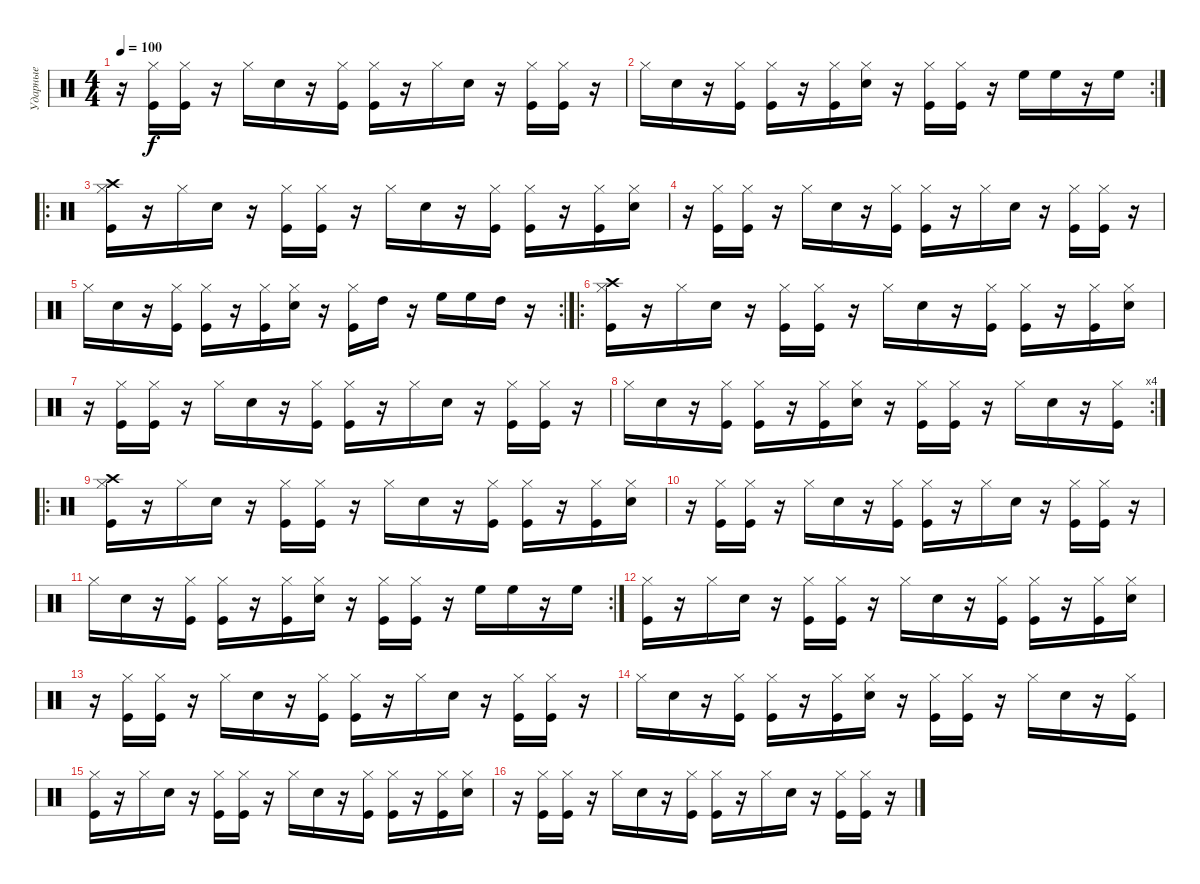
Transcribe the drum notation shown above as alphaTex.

\track ("Ударные" "Ударные") {instrument percussion}
\staff {score}
\articulation defaults
\ts (4 4)
\tempo 100
\clef neutral
\ks c
r.16{dy f} ("Kick (hit)" "Hi-Hat (closed)").16 ("Kick (hit)" "Hi-Hat (closed)").16 r.16 "Hi-Hat (closed)".16 "Electric Snare (hit)".16 r.16 ("Kick (hit)" "Hi-Hat (closed)").16 ("Kick (hit)" "Hi-Hat (closed)").16 r.16 "Hi-Hat (closed)".16 "Electric Snare (hit)".16 r.16 ("Kick (hit)" "Hi-Hat (closed)").16 ("Kick (hit)" "Hi-Hat (closed)").16 r.16 |
\rc 2 "Hi-Hat (closed)".16 "Electric Snare (hit)".16
r.16 ("Kick (hit)" "Hi-Hat (closed)").16 ("Kick (hit)" "Hi-Hat (closed)").16 r.16 ("Kick (hit)" "Hi-Hat (closed)").16 ("Electric Snare (hit)" "Hi-Hat (closed)").16 r.16 ("Kick (hit)" "Hi-Hat (closed)").16 ("Kick (hit)" "Hi-Hat (closed)").16 r.16 "High Floor Tom (hit)".16 "High Floor Tom (hit)".16 r.16 "High Floor Tom (hit)".16 |
\ro
("Hi-Hat (closed)" "Kick (hit)" "Crash high (hit)").16 r.16 "Hi-Hat (closed)".16 "Electric Snare (hit)".16 r.16 ("Kick (hit)" "Hi-Hat (closed)").16 ("Kick (hit)" "Hi-Hat (closed)").16 r.16 "Hi-Hat (closed)".16 "Electric Snare (hit)".16 r.16 ("Kick (hit)" "Hi-Hat (closed)").16 ("Kick (hit)" "Hi-Hat (closed)").16 r.16 ("Kick (hit)" "Hi-Hat (closed)").16 ("Electric Snare (hit)" "Hi-Hat (closed)").16 |
r.16 ("Kick (hit)" "Hi-Hat (closed)").16 ("Kick (hit)" "Hi-Hat (closed)").16 r.16 "Hi-Hat (closed)".16 "Electric Snare (hit)".16 r.16 ("Kick (hit)" "Hi-Hat (closed)").16 ("Kick (hit)" "Hi-Hat (closed)").16 r.16 "Hi-Hat (closed)".16 "Electric Snare (hit)".16 r.16 ("Kick (hit)" "Hi-Hat (closed)").16 ("Kick (hit)" "Hi-Hat (closed)").16 r.16 |
\rc 2 "Hi-Hat (closed)".16 "Electric Snare (hit)".16
r.16 ("Kick (hit)" "Hi-Hat (closed)").16 ("Kick (hit)" "Hi-Hat (closed)").16 r.16 ("Kick (hit)" "Hi-Hat (closed)").16 ("Electric Snare (hit)" "Hi-Hat (closed)").16 r.16 ("Kick (hit)" "Hi-Hat (closed)").16 "High Tom (hit)".16 r.16 "High Floor Tom (hit)".16 "High Floor Tom (hit)".16 "High Tom (hit)".16 r.16 |
\ro
("Hi-Hat (closed)" "Kick (hit)" "Crash high (hit)").16 r.16 "Hi-Hat (closed)".16 "Electric Snare (hit)".16 r.16 ("Kick (hit)" "Hi-Hat (closed)").16 ("Kick (hit)" "Hi-Hat (closed)").16 r.16 "Hi-Hat (closed)".16 "Electric Snare (hit)".16 r.16 ("Kick (hit)" "Hi-Hat (closed)").16 ("Kick (hit)" "Hi-Hat (closed)").16 r.16 ("Kick (hit)" "Hi-Hat (closed)").16 ("Electric Snare (hit)" "Hi-Hat (closed)").16 |
r.16 ("Kick (hit)" "Hi-Hat (closed)").16 ("Kick (hit)" "Hi-Hat (closed)").16 r.16 "Hi-Hat (closed)".16 "Electric Snare (hit)".16 r.16 ("Kick (hit)" "Hi-Hat (closed)").16 ("Kick (hit)" "Hi-Hat (closed)").16 r.16 "Hi-Hat (closed)".16 "Electric Snare (hit)".16 r.16 ("Kick (hit)" "Hi-Hat (closed)").16 ("Kick (hit)" "Hi-Hat (closed)").16 r.16 |
\rc 4 "Hi-Hat (closed)".16 "Electric Snare (hit)".16
r.16 ("Kick (hit)" "Hi-Hat (closed)").16 ("Kick (hit)" "Hi-Hat (closed)").16 r.16 ("Kick (hit)" "Hi-Hat (closed)").16 ("Electric Snare (hit)" "Hi-Hat (closed)").16 r.16 ("Kick (hit)" "Hi-Hat (closed)").16 ("Kick (hit)" "Hi-Hat (closed)").16 r.16 "Hi-Hat (closed)".16 "Electric Snare (hit)".16 r.16 ("Kick (hit)" "Hi-Hat (closed)").16 |
\ro
("Hi-Hat (closed)" "Kick (hit)" "Crash high (hit)").16 r.16 "Hi-Hat (closed)".16 "Electric Snare (hit)".16 r.16 ("Kick (hit)" "Hi-Hat (closed)").16 ("Kick (hit)" "Hi-Hat (closed)").16 r.16 "Hi-Hat (closed)".16 "Electric Snare (hit)".16 r.16 ("Kick (hit)" "Hi-Hat (closed)").16 ("Kick (hit)" "Hi-Hat (closed)").16 r.16 ("Kick (hit)" "Hi-Hat (closed)").16 ("Electric Snare (hit)" "Hi-Hat (closed)").16 |
r.16 ("Kick (hit)" "Hi-Hat (closed)").16 ("Kick (hit)" "Hi-Hat (closed)").16 r.16 "Hi-Hat (closed)".16 "Electric Snare (hit)".16 r.16 ("Kick (hit)" "Hi-Hat (closed)").16 ("Kick (hit)" "Hi-Hat (closed)").16 r.16 "Hi-Hat (closed)".16 "Electric Snare (hit)".16 r.16 ("Kick (hit)" "Hi-Hat (closed)").16 ("Kick (hit)" "Hi-Hat (closed)").16 r.16 |
\rc 2 "Hi-Hat (closed)".16 "Electric Snare (hit)".16
r.16 ("Kick (hit)" "Hi-Hat (closed)").16 ("Kick (hit)" "Hi-Hat (closed)").16 r.16 ("Kick (hit)" "Hi-Hat (closed)").16 ("Electric Snare (hit)" "Hi-Hat (closed)").16 r.16 ("Kick (hit)" "Hi-Hat (closed)").16 ("Kick (hit)" "Hi-Hat (closed)").16 r.16 "High Floor Tom (hit)".16 "High Floor Tom (hit)".16 r.16 "High Floor Tom (hit)".16 |
("Hi-Hat (closed)" "Kick (hit)").16 r.16 "Hi-Hat (closed)".16 "Electric Snare (hit)".16 r.16 ("Kick (hit)" "Hi-Hat (closed)").16 ("Kick (hit)" "Hi-Hat (closed)").16 r.16 "Hi-Hat (closed)".16 "Electric Snare (hit)".16 r.16 ("Kick (hit)" "Hi-Hat (closed)").16 ("Kick (hit)" "Hi-Hat (closed)").16 r.16 ("Kick (hit)" "Hi-Hat (closed)").16 ("Electric Snare (hit)" "Hi-Hat (closed)").16 |
r.16 ("Kick (hit)" "Hi-Hat (closed)").16 ("Kick (hit)" "Hi-Hat (closed)").16 r.16 "Hi-Hat (closed)".16 "Electric Snare (hit)".16 r.16 ("Kick (hit)" "Hi-Hat (closed)").16 ("Kick (hit)" "Hi-Hat (closed)").16 r.16 "Hi-Hat (closed)".16 "Electric Snare (hit)".16 r.16 ("Kick (hit)" "Hi-Hat (closed)").16 ("Kick (hit)" "Hi-Hat (closed)").16 r.16 |
"Hi-Hat (closed)".16 "Electric Snare (hit)".16 r.16 ("Kick (hit)" "Hi-Hat (closed)").16 ("Kick (hit)" "Hi-Hat (closed)").16 r.16 ("Kick (hit)" "Hi-Hat (closed)").16 ("Electric Snare (hit)" "Hi-Hat (closed)").16 r.16 ("Kick (hit)" "Hi-Hat (closed)").16 ("Kick (hit)" "Hi-Hat (closed)").16 r.16 "Hi-Hat (closed)".16 "Electric Snare (hit)".16 r.16 ("Kick (hit)" "Hi-Hat (closed)").16 |
("Hi-Hat (closed)" "Kick (hit)").16 r.16 "Hi-Hat (closed)".16 "Electric Snare (hit)".16 r.16 ("Kick (hit)" "Hi-Hat (closed)").16 ("Kick (hit)" "Hi-Hat (closed)").16 r.16 "Hi-Hat (closed)".16 "Electric Snare (hit)".16 r.16 ("Kick (hit)" "Hi-Hat (closed)").16 ("Kick (hit)" "Hi-Hat (closed)").16 r.16 ("Kick (hit)" "Hi-Hat (closed)").16 ("Electric Snare (hit)" "Hi-Hat (closed)").16 |
r.16 ("Kick (hit)" "Hi-Hat (closed)").16 ("Kick (hit)" "Hi-Hat (closed)").16 r.16 "Hi-Hat (closed)".16 "Electric Snare (hit)".16 r.16 ("Kick (hit)" "Hi-Hat (closed)").16 ("Kick (hit)" "Hi-Hat (closed)").16 r.16 "Hi-Hat (closed)".16 "Electric Snare (hit)".16 r.16 ("Kick (hit)" "Hi-Hat (closed)").16 ("Kick (hit)" "Hi-Hat (closed)").16 r.16
